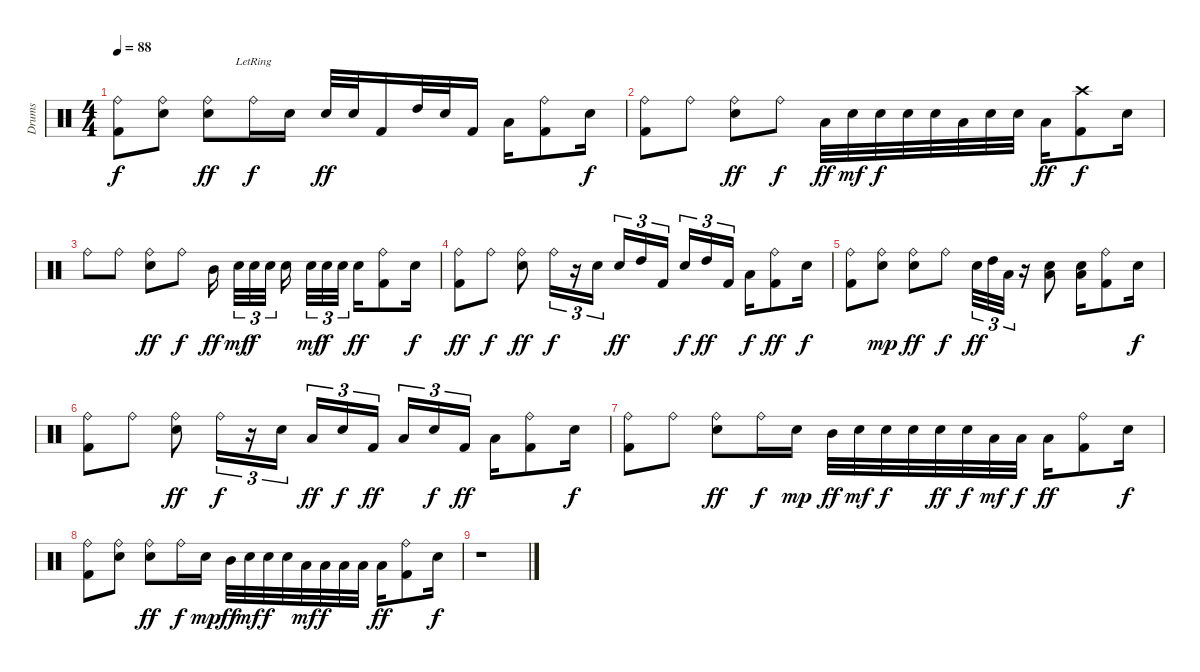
\track ("Drums" "Drums") {instrument percussion}
\staff {score}
\articulation defaults
\ts (4 4)
\tempo 88
\clef neutral
\ks c
("Ride (bell)" "Kick (hit) 2").8{dy f} ("Ride (bell)" "Electric Snare (hit)").8 ("Ride (bell)" "Electric Snare (hit)").8{dy ff} "Ride (bell)"{lr}.16{dy f} "Electric Snare (hit)".16 "Electric Snare (hit)".32{dy ff} "Electric Snare (hit)".32 "Kick (hit) 2".16 "High Tom (hit)".32 "Electric Snare (hit)".32 "Kick (hit) 2".16 "Low Tom (hit)".16 ("Ride (bell)" "Kick (hit) 2").8 "Electric Snare (hit)".16{dy f} |
("Ride (bell)" "Kick (hit) 2").8 "Ride (bell)".8 ("Ride (bell)" "Electric Snare (hit)").8{dy ff} "Ride (bell)".8{dy f} "Low Tom (hit)".32{dy ff} "Electric Snare (hit)".32{dy mf} "Electric Snare (hit)".32{dy f} "Electric Snare (hit)".32 "Electric Snare (hit)".32 "Low Tom (hit)".32 "Electric Snare (hit)".32 "Electric Snare (hit)".32 "Low Tom (hit)".16{dy ff} ("Crash high (hit)" "Kick (hit) 2").8{dy f} "Electric Snare (hit)".16 |
"Ride (bell)".8 "Ride (bell)".8 ("Ride (bell)" "Electric Snare (hit)").8{dy ff} "Ride (bell)".8{dy f} "Mid Tom (hit)".16{dy ff} "Electric Snare (hit)".32{tu (3 2) dy mf} "Electric Snare (hit)".32{tu (3 2) dy f} "Electric Snare (hit)".32{tu (3 2)} "Electric Snare (hit)".16 "Electric Snare (hit)".32{tu (3 2) dy mf} "Electric Snare (hit)".32{tu (3 2) dy f} "Electric Snare (hit)".32{tu (3 2)} "Electric Snare (hit)".16{dy ff} ("Ride (bell)" "Kick (hit) 2").8 "Electric Snare (hit)".16{dy f} |
("Ride (bell)" "Kick (hit) 2").8{dy ff} "Ride (bell)".8{dy f} ("Ride (bell)" "Electric Snare (hit)").8{dy ff} "Ride (bell)".16{tu (3 2) dy f} r.16{tu (3 2)} "Electric Snare (hit)".16{tu (3 2)} "Electric Snare (hit)".16{tu (3 2) dy ff} "High Tom (hit)".16{tu (3 2)} "Kick (hit) 2".16{tu (3 2)} "Electric Snare (hit)".16{tu (3 2) dy f} "High Tom (hit)".16{tu (3 2) dy ff} "Kick (hit) 2".16{tu (3 2)} "Low Tom (hit)".16{dy f} ("Ride (bell)" "Kick (hit) 2").8{dy ff} "Electric Snare (hit)".16{dy f} |
("Ride (bell)" "Kick (hit) 2").8 ("Ride (bell)" "Electric Snare (hit)").8{dy mp} ("Ride (bell)" "Electric Snare (hit)").8{dy ff} "Ride (bell)".8{dy f} "Electric Snare (hit)".32{tu (3 2) dy ff} "High Tom (hit)".32{tu (3 2)} "Low Tom (hit)".32{tu (3 2)} r.16 ("Electric Snare (hit)" "Low Tom (hit)").8 ("Electric Snare (hit)" "Low Tom (hit)").16 ("Ride (bell)" "Kick (hit) 2").8 "Electric Snare (hit)".16{dy f} |
("Ride (bell)" "Kick (hit) 2").8 "Ride (bell)".8 ("Ride (bell)" "Electric Snare (hit)").8{dy ff} "Ride (bell)".16{tu (3 2) dy f} r.16{tu (3 2)} "Electric Snare (hit)".16{tu (3 2)} "Low Tom (hit)".16{tu (3 2) dy ff} "Electric Snare (hit)".16{tu (3 2) dy f} "Kick (hit) 2".16{tu (3 2) dy ff} "Low Tom (hit)".16{tu (3 2)} "Electric Snare (hit)".16{tu (3 2) dy f} "Kick (hit) 2".16{tu (3 2) dy ff} "Low Tom (hit)".16 ("Ride (bell)" "Kick (hit) 2").8 "Electric Snare (hit)".16{dy f} |
("Ride (bell)" "Kick (hit) 2").8 "Ride (bell)".8 ("Ride (bell)" "Electric Snare (hit)").8{dy ff} "Ride (bell)".16{dy f} "Electric Snare (hit)".16{dy mp} "Mid Tom (hit)".32{dy ff} "Electric Snare (hit)".32{dy mf} "Electric Snare (hit)".32{dy f} "Electric Snare (hit)".32 "Electric Snare (hit)".32{dy ff} "Electric Snare (hit)".32{dy f} "Low Tom (hit)".32{dy mf} "Low Tom (hit)".32{dy f} "Low Tom (hit)".16{dy ff} ("Ride (bell)" "Kick (hit) 2").8 "Electric Snare (hit)".16{dy f} |
("Ride (bell)" "Kick (hit) 2").8 ("Ride (bell)" "Electric Snare (hit)").8 ("Ride (bell)" "Electric Snare (hit)").8{dy ff} "Ride (bell)".16{dy f} "Electric Snare (hit)".16{dy mp} "Mid Tom (hit)".32{dy ff} "Electric Snare (hit)".32{dy mf} "Electric Snare (hit)".32{dy f} "Electric Snare (hit)".32 "Low Tom (hit)".32{dy mf} "Low Tom (hit)".32{dy f} "Low Tom (hit)".32 "Low Tom (hit)".32 "Low Tom (hit)".16{dy ff} ("Ride (bell)" "Kick (hit) 2").8 "Electric Snare (hit)".16{dy f} |
r.1
